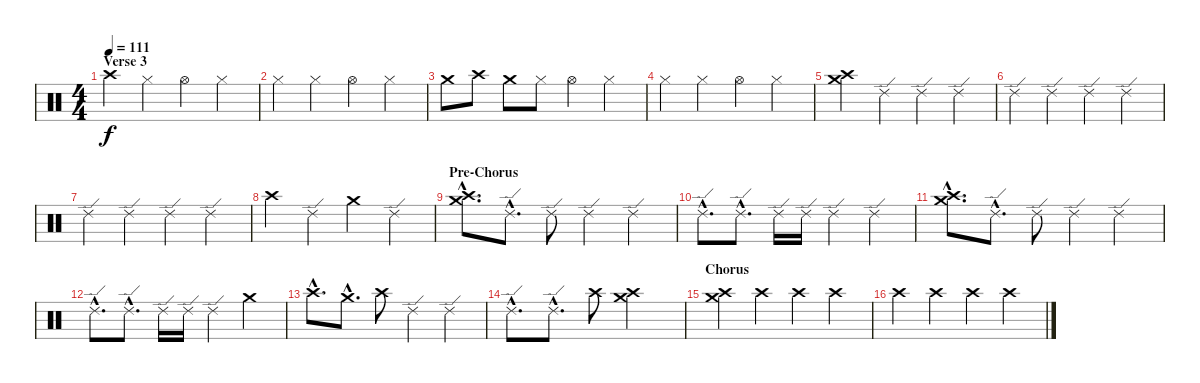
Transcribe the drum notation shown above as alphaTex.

\track "" {instrument percussion}
\staff {score}
\articulation defaults
\ts (4 4)
\section ("" "Verse 3")
\tempo 111
\clef neutral
\ks c "Crash high (hit)".4{dy f} "Hi-Hat (closed)".4 "Hi-Hat (open)".4 "Hi-Hat (closed)".4
|
"Hi-Hat (closed)".4 "Hi-Hat (closed)".4 "Hi-Hat (open)".4 "Hi-Hat (closed)".4 |
"Crash medium (hit)".8 "Crash high (hit)".8 "Crash medium (hit)".8 "Hi-Hat (closed)".8 "Hi-Hat (open)".4 "Hi-Hat (closed)".4 |
"Hi-Hat (closed)".4 "Hi-Hat (closed)".4 "Hi-Hat (open)".4 "Hi-Hat (closed)".4 |
("Crash medium (hit)" "Crash high (hit)").4 "Ride (edge) 2".4 "Ride (edge) 2".4 "Ride (edge) 2".4 |
"Ride (edge) 2".4 "Ride (edge) 2".4 "Ride (edge) 2".4 "Ride (edge) 2".4 |
"Ride (edge) 2".4 "Ride (edge) 2".4 "Ride (edge) 2".4 "Ride (edge) 2".4 |
"Crash high (hit)".4 "Ride (edge) 2".4 "Crash medium (hit)".4 "Ride (edge) 2".4 |
\section ("" "Pre-Chorus")
("Crash medium (hit)"{hac} "Crash high (hit)"{hac}).8{d} "Ride (edge) 2"{hac}.8{d} "Ride (edge) 2".8 "Ride (edge) 2".4 "Ride (edge) 2".4 |
"Ride (edge) 2"{hac}.8{d} "Ride (edge) 2"{hac}.8{d} "Ride (edge) 2".16 "Ride (edge) 2".16 "Ride (edge) 2".4 "Ride (edge) 2".4 |
("Crash medium (hit)"{hac} "Crash high (hit)"{hac}).8{d} "Ride (edge) 2"{hac}.8{d} "Ride (edge) 2".8 "Ride (edge) 2".4 "Ride (edge) 2".4 |
"Ride (edge) 2"{hac}.8{d} "Ride (edge) 2"{hac}.8{d} "Ride (edge) 2".16 "Ride (edge) 2".16 "Ride (edge) 2".4 "Crash medium (hit)".4 |
"Crash high (hit)"{hac}.8{d} "Crash medium (hit)"{hac}.8{d} "Crash high (hit)".8 "Ride (edge) 2".4 "Ride (edge) 2".4 |
"Ride (edge) 2"{hac}.8{d} "Ride (edge) 2"{hac}.8{d} "Crash high (hit)".8 ("Crash medium (hit)" "Crash high (hit)").2 |
\section ("" "Chorus")
("Crash medium (hit)" "Crash high (hit)").4 "Crash high (hit)".4 "Crash high (hit)".4 "Crash high (hit)".4 |
"Crash high (hit)".4 "Crash high (hit)".4 "Crash high (hit)".4 "Crash high (hit)".4
